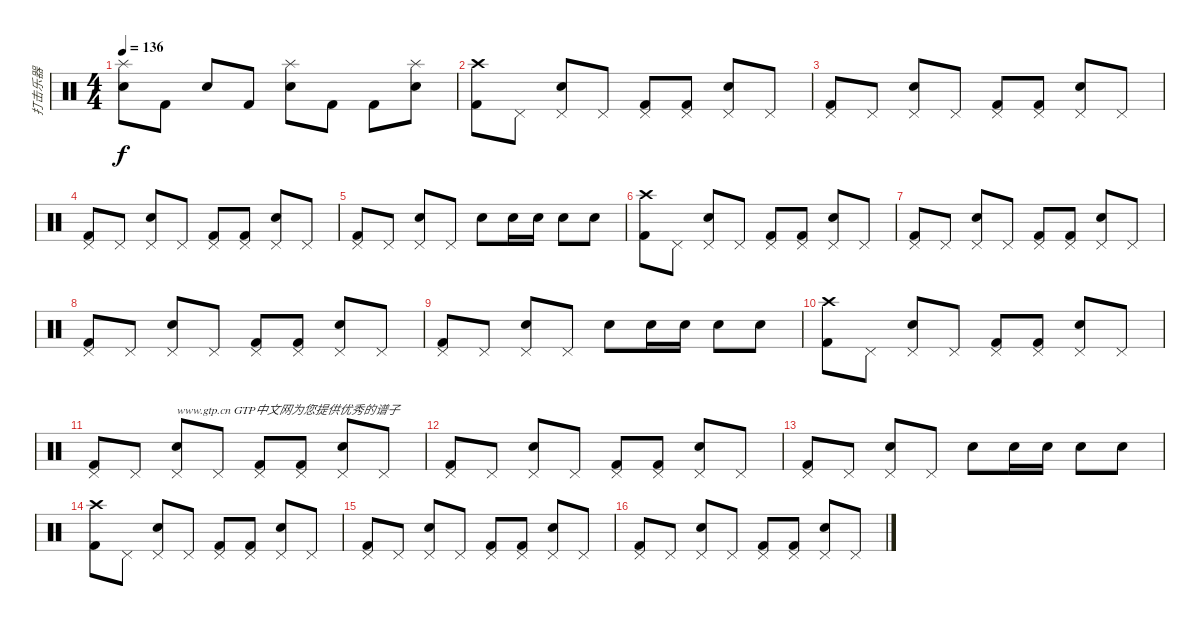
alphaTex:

\track ("打击乐器" "打击乐器") {instrument percussion}
\staff {score}
\articulation defaults
\ts (4 4)
\tempo 136
\clef neutral
\ks c
("Snare (hit) 2" "Splash (hit)").8{dy f} "Kick (hit) 2".8 "Snare (hit) 2".8 "Kick (hit) 2".8 ("Snare (hit) 2" "Splash (hit)").8 "Kick (hit) 2".8 "Kick (hit) 2".8 ("Snare (hit) 2" "Splash (hit)").8 |
("Crash high (hit)" "Kick (hit) 2").8 "Pedal Hi-Hat (hit)".8 ("Pedal Hi-Hat (hit)" "Snare (hit) 2").8 "Pedal Hi-Hat (hit)".8 ("Pedal Hi-Hat (hit)" "Kick (hit) 2").8 ("Pedal Hi-Hat (hit)" "Kick (hit) 2").8 ("Pedal Hi-Hat (hit)" "Snare (hit) 2").8 "Pedal Hi-Hat (hit)".8 |
("Pedal Hi-Hat (hit)" "Kick (hit) 2").8 "Pedal Hi-Hat (hit)".8 ("Pedal Hi-Hat (hit)" "Snare (hit) 2").8 "Pedal Hi-Hat (hit)".8 ("Pedal Hi-Hat (hit)" "Kick (hit) 2").8 ("Pedal Hi-Hat (hit)" "Kick (hit) 2").8 ("Pedal Hi-Hat (hit)" "Snare (hit) 2").8 "Pedal Hi-Hat (hit)".8 |
("Pedal Hi-Hat (hit)" "Kick (hit) 2").8 "Pedal Hi-Hat (hit)".8 ("Pedal Hi-Hat (hit)" "Snare (hit) 2").8 "Pedal Hi-Hat (hit)".8 ("Pedal Hi-Hat (hit)" "Kick (hit) 2").8 ("Pedal Hi-Hat (hit)" "Kick (hit) 2").8 ("Pedal Hi-Hat (hit)" "Snare (hit) 2").8 "Pedal Hi-Hat (hit)".8 |
("Pedal Hi-Hat (hit)" "Kick (hit) 2").8 "Pedal Hi-Hat (hit)".8 ("Pedal Hi-Hat (hit)" "Snare (hit) 2").8 "Pedal Hi-Hat (hit)".8 "Snare (hit) 2".8 "Snare (hit) 2".16 "Snare (hit) 2".16 "Snare (hit) 2".8 "Snare (hit) 2".8 |
("Crash high (hit)" "Kick (hit) 2").8 "Pedal Hi-Hat (hit)".8 ("Pedal Hi-Hat (hit)" "Snare (hit) 2").8 "Pedal Hi-Hat (hit)".8 ("Pedal Hi-Hat (hit)" "Kick (hit) 2").8 ("Pedal Hi-Hat (hit)" "Kick (hit) 2").8 ("Pedal Hi-Hat (hit)" "Snare (hit) 2").8 "Pedal Hi-Hat (hit)".8 |
("Pedal Hi-Hat (hit)" "Kick (hit) 2").8 "Pedal Hi-Hat (hit)".8 ("Pedal Hi-Hat (hit)" "Snare (hit) 2").8 "Pedal Hi-Hat (hit)".8 ("Pedal Hi-Hat (hit)" "Kick (hit) 2").8 ("Pedal Hi-Hat (hit)" "Kick (hit) 2").8 ("Pedal Hi-Hat (hit)" "Snare (hit) 2").8 "Pedal Hi-Hat (hit)".8 |
("Pedal Hi-Hat (hit)" "Kick (hit) 2").8 "Pedal Hi-Hat (hit)".8 ("Pedal Hi-Hat (hit)" "Snare (hit) 2").8 "Pedal Hi-Hat (hit)".8 ("Pedal Hi-Hat (hit)" "Kick (hit) 2").8 ("Pedal Hi-Hat (hit)" "Kick (hit) 2").8 ("Pedal Hi-Hat (hit)" "Snare (hit) 2").8 "Pedal Hi-Hat (hit)".8 |
("Pedal Hi-Hat (hit)" "Kick (hit) 2").8 "Pedal Hi-Hat (hit)".8 ("Pedal Hi-Hat (hit)" "Snare (hit) 2").8 "Pedal Hi-Hat (hit)".8 "Snare (hit) 2".8 "Snare (hit) 2".16 "Snare (hit) 2".16 "Snare (hit) 2".8 "Snare (hit) 2".8 |
("Crash high (hit)" "Kick (hit) 2").8 "Pedal Hi-Hat (hit)".8 ("Pedal Hi-Hat (hit)" "Snare (hit) 2").8 "Pedal Hi-Hat (hit)".8 ("Pedal Hi-Hat (hit)" "Kick (hit) 2").8 ("Pedal Hi-Hat (hit)" "Kick (hit) 2").8 ("Pedal Hi-Hat (hit)" "Snare (hit) 2").8 "Pedal Hi-Hat (hit)".8 |
("Pedal Hi-Hat (hit)" "Kick (hit) 2").8 "Pedal Hi-Hat (hit)".8 ("Pedal Hi-Hat (hit)" "Snare (hit) 2").8{txt "www.gtp.cn GTP中文网为您提供优秀的谱子"} "Pedal Hi-Hat (hit)".8 ("Pedal Hi-Hat (hit)" "Kick (hit) 2").8 ("Pedal Hi-Hat (hit)" "Kick (hit) 2").8 ("Pedal Hi-Hat (hit)" "Snare (hit) 2").8 "Pedal Hi-Hat (hit)".8 |
("Pedal Hi-Hat (hit)" "Kick (hit) 2").8 "Pedal Hi-Hat (hit)".8 ("Pedal Hi-Hat (hit)" "Snare (hit) 2").8 "Pedal Hi-Hat (hit)".8 ("Pedal Hi-Hat (hit)" "Kick (hit) 2").8 ("Pedal Hi-Hat (hit)" "Kick (hit) 2").8 ("Pedal Hi-Hat (hit)" "Snare (hit) 2").8 "Pedal Hi-Hat (hit)".8 |
("Pedal Hi-Hat (hit)" "Kick (hit) 2").8 "Pedal Hi-Hat (hit)".8 ("Pedal Hi-Hat (hit)" "Snare (hit) 2").8 "Pedal Hi-Hat (hit)".8 "Snare (hit) 2".8 "Snare (hit) 2".16 "Snare (hit) 2".16 "Snare (hit) 2".8 "Snare (hit) 2".8 |
("Crash high (hit)" "Kick (hit) 2").8 "Pedal Hi-Hat (hit)".8 ("Pedal Hi-Hat (hit)" "Snare (hit) 2").8 "Pedal Hi-Hat (hit)".8 ("Pedal Hi-Hat (hit)" "Kick (hit) 2").8 ("Pedal Hi-Hat (hit)" "Kick (hit) 2").8 ("Pedal Hi-Hat (hit)" "Snare (hit) 2").8 "Pedal Hi-Hat (hit)".8 |
("Pedal Hi-Hat (hit)" "Kick (hit) 2").8 "Pedal Hi-Hat (hit)".8 ("Pedal Hi-Hat (hit)" "Snare (hit) 2").8 "Pedal Hi-Hat (hit)".8 ("Pedal Hi-Hat (hit)" "Kick (hit) 2").8 ("Pedal Hi-Hat (hit)" "Kick (hit) 2").8 ("Pedal Hi-Hat (hit)" "Snare (hit) 2").8 "Pedal Hi-Hat (hit)".8 |
("Pedal Hi-Hat (hit)" "Kick (hit) 2").8 "Pedal Hi-Hat (hit)".8 ("Pedal Hi-Hat (hit)" "Snare (hit) 2").8 "Pedal Hi-Hat (hit)".8 ("Pedal Hi-Hat (hit)" "Kick (hit) 2").8 ("Pedal Hi-Hat (hit)" "Kick (hit) 2").8 ("Pedal Hi-Hat (hit)" "Snare (hit) 2").8 "Pedal Hi-Hat (hit)".8
